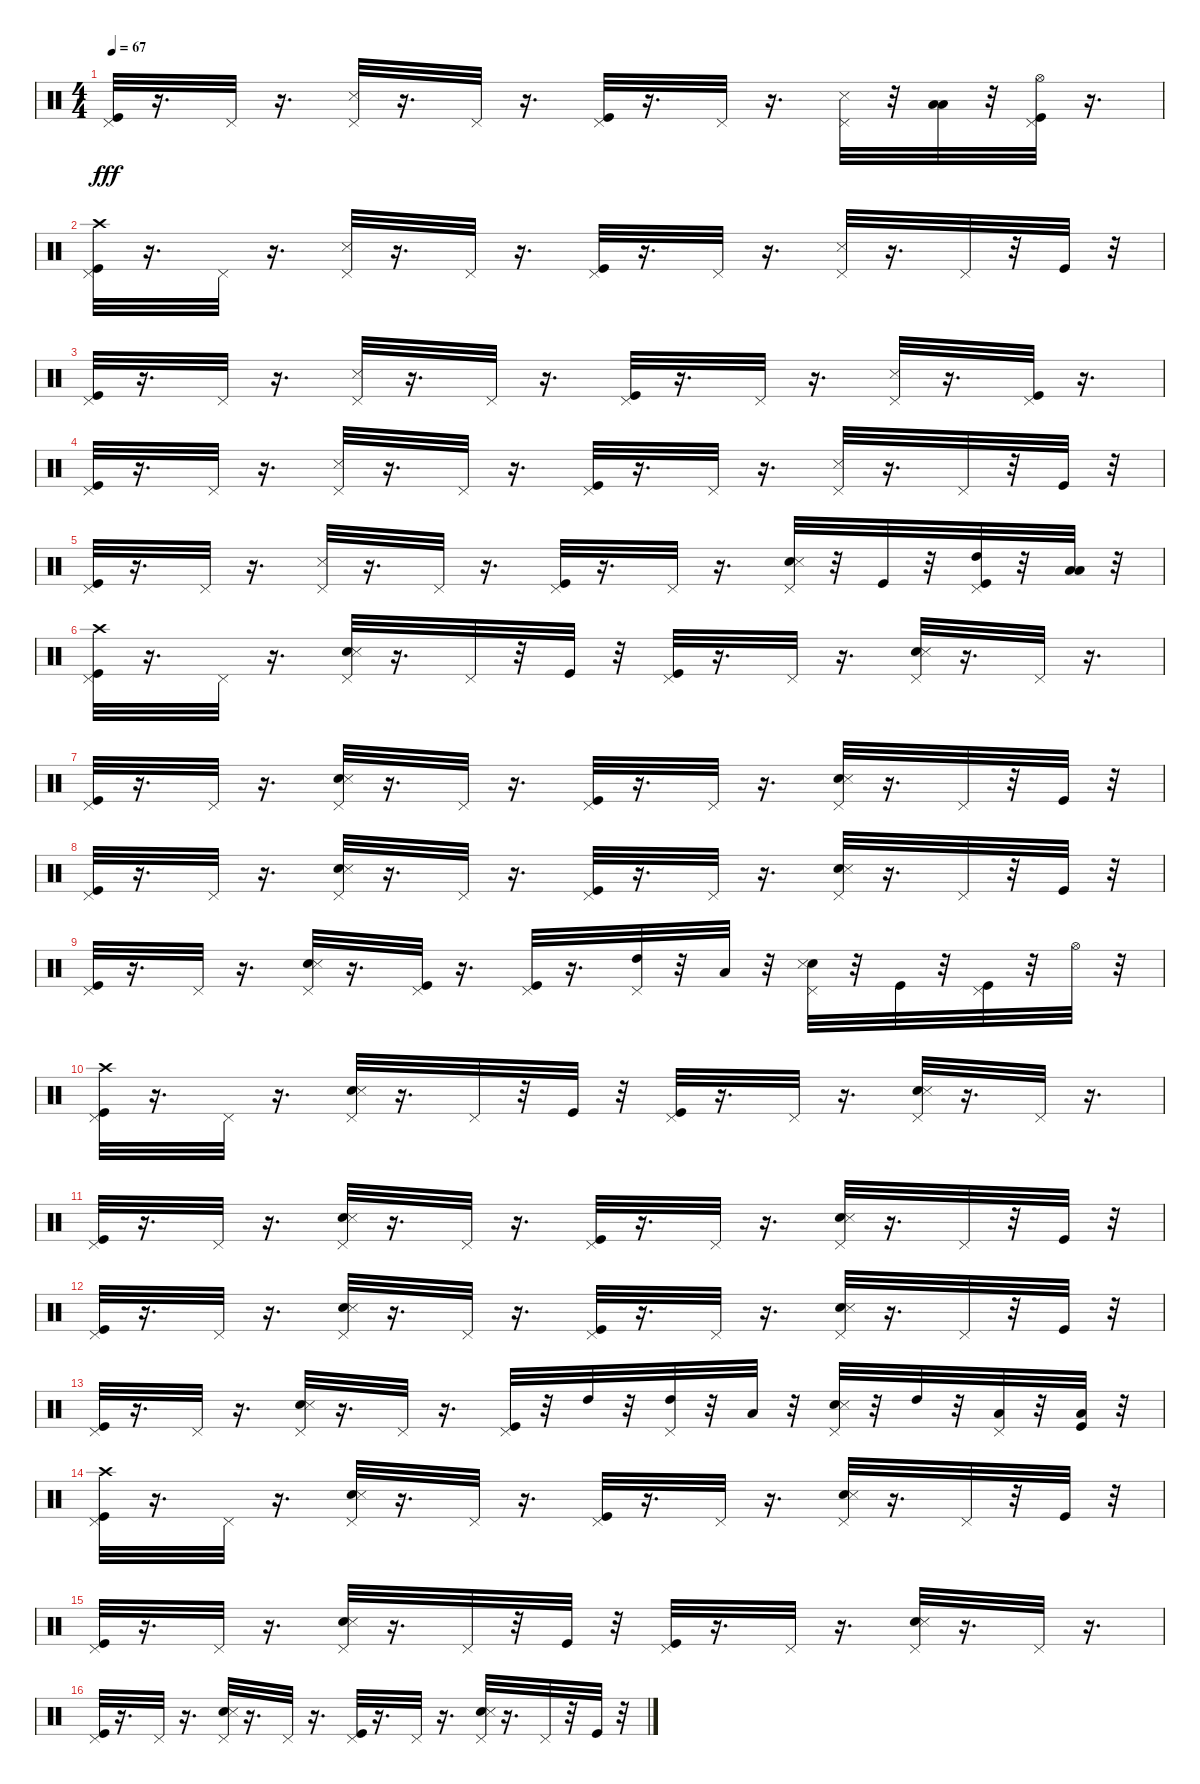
\track "" {instrument percussion}
\staff {score}
\articulation defaults
\ts (4 4)
\tempo 67
\clef neutral
\ks c
("Kick (hit)" "Pedal Hi-Hat (hit)").32{dy fff} r.16{d} "Pedal Hi-Hat (hit)".32 r.16{d} ("Pedal Hi-Hat (hit)" "Snare (side stick) 3").32 r.16{d} "Pedal Hi-Hat (hit)".32 r.16{d} ("Kick (hit)" "Pedal Hi-Hat (hit)").32 r.16{d} "Pedal Hi-Hat (hit)".32 r.16{d} ("Pedal Hi-Hat (hit)" "Snare (side stick) 3").32 r.32 ("Low Tom (hit)" "Low Floor Tom (hit)").32 r.32 ("Kick (hit)" "Pedal Hi-Hat (hit)" "Hi-Hat (open)").32 r.16{d} |
("Kick (hit)" "Pedal Hi-Hat (hit)" "Crash high (hit)").32 r.16{d} "Pedal Hi-Hat (hit)".32 r.16{d} ("Pedal Hi-Hat (hit)" "Snare (side stick) 3").32 r.16{d} "Pedal Hi-Hat (hit)".32 r.16{d} ("Kick (hit)" "Pedal Hi-Hat (hit)").32 r.16{d} "Pedal Hi-Hat (hit)".32 r.16{d} ("Pedal Hi-Hat (hit)" "Snare (side stick) 3").32 r.16{d} "Pedal Hi-Hat (hit)".32 r.32 "Kick (hit)".32 r.32 |
("Kick (hit)" "Pedal Hi-Hat (hit)").32 r.16{d} "Pedal Hi-Hat (hit)".32 r.16{d} ("Pedal Hi-Hat (hit)" "Snare (side stick) 3").32 r.16{d} "Pedal Hi-Hat (hit)".32 r.16{d} ("Kick (hit)" "Pedal Hi-Hat (hit)").32 r.16{d} "Pedal Hi-Hat (hit)".32 r.16{d} ("Pedal Hi-Hat (hit)" "Snare (side stick) 3").32 r.16{d} ("Kick (hit)" "Pedal Hi-Hat (hit)").32 r.16{d} |
("Kick (hit)" "Pedal Hi-Hat (hit)").32 r.16{d} "Pedal Hi-Hat (hit)".32 r.16{d} ("Pedal Hi-Hat (hit)" "Snare (side stick) 3").32 r.16{d} "Pedal Hi-Hat (hit)".32 r.16{d} ("Kick (hit)" "Pedal Hi-Hat (hit)").32 r.16{d} "Pedal Hi-Hat (hit)".32 r.16{d} ("Pedal Hi-Hat (hit)" "Snare (side stick) 3").32 r.16{d} "Pedal Hi-Hat (hit)".32 r.32 "Kick (hit)".32 r.32 |
("Kick (hit)" "Pedal Hi-Hat (hit)").32 r.16{d} "Pedal Hi-Hat (hit)".32 r.16{d} ("Pedal Hi-Hat (hit)" "Snare (side stick) 3").32 r.16{d} "Pedal Hi-Hat (hit)".32 r.16{d} ("Kick (hit)" "Pedal Hi-Hat (hit)").32 r.16{d} "Pedal Hi-Hat (hit)".32 r.16{d} ("Electric Snare (hit)" "Pedal Hi-Hat (hit)" "Snare (side stick) 3").32 r.32 "Kick (hit)".32 r.32 ("Kick (hit)" "Pedal Hi-Hat (hit)" "High Tom (hit)").32 r.32 ("Low Tom (hit)" "Low Floor Tom (hit)").32 r.32 |
("Kick (hit)" "Pedal Hi-Hat (hit)" "Crash high (hit)").32 r.16{d} "Pedal Hi-Hat (hit)".32 r.16{d} ("Electric Snare (hit)" "Pedal Hi-Hat (hit)" "Snare (side stick) 3").32 r.16{d} "Pedal Hi-Hat (hit)".32 r.32 "Kick (hit)".32 r.32 ("Kick (hit)" "Pedal Hi-Hat (hit)").32 r.16{d} "Pedal Hi-Hat (hit)".32 r.16{d} ("Electric Snare (hit)" "Pedal Hi-Hat (hit)" "Snare (side stick) 3").32 r.16{d} "Pedal Hi-Hat (hit)".32 r.16{d} |
("Kick (hit)" "Pedal Hi-Hat (hit)").32 r.16{d} "Pedal Hi-Hat (hit)".32 r.16{d} ("Electric Snare (hit)" "Pedal Hi-Hat (hit)" "Snare (side stick) 3").32 r.16{d} "Pedal Hi-Hat (hit)".32 r.16{d} ("Kick (hit)" "Pedal Hi-Hat (hit)").32 r.16{d} "Pedal Hi-Hat (hit)".32 r.16{d} ("Electric Snare (hit)" "Pedal Hi-Hat (hit)" "Snare (side stick) 3").32 r.16{d} "Pedal Hi-Hat (hit)".32 r.32 "Kick (hit)".32 r.32 |
("Kick (hit)" "Pedal Hi-Hat (hit)").32 r.16{d} "Pedal Hi-Hat (hit)".32 r.16{d} ("Electric Snare (hit)" "Pedal Hi-Hat (hit)" "Snare (side stick) 3").32 r.16{d} "Pedal Hi-Hat (hit)".32 r.16{d} ("Kick (hit)" "Pedal Hi-Hat (hit)").32 r.16{d} "Pedal Hi-Hat (hit)".32 r.16{d} ("Electric Snare (hit)" "Pedal Hi-Hat (hit)" "Snare (side stick) 3").32 r.16{d} "Pedal Hi-Hat (hit)".32 r.32 "Kick (hit)".32 r.32 |
("Kick (hit)" "Pedal Hi-Hat (hit)").32 r.16{d} "Pedal Hi-Hat (hit)".32 r.16{d} ("Electric Snare (hit)" "Pedal Hi-Hat (hit)" "Snare (side stick) 3").32 r.16{d} ("Kick (hit)" "Pedal Hi-Hat (hit)").32 r.16{d} ("Kick (hit)" "Pedal Hi-Hat (hit)").32 r.16{d} ("Pedal Hi-Hat (hit)" "High Tom (hit)").32 r.32 "Low Tom (hit)".32 r.32 ("Electric Snare (hit)" "Pedal Hi-Hat (hit)" "Snare (side stick) 3").32 r.32 "Kick (hit)".32 r.32 ("Kick (hit)" "Pedal Hi-Hat (hit)").32 r.32 "Hi-Hat (open)".32 r.32 |
("Kick (hit)" "Pedal Hi-Hat (hit)" "Crash high (hit)").32 r.16{d} "Pedal Hi-Hat (hit)".32 r.16{d} ("Electric Snare (hit)" "Pedal Hi-Hat (hit)" "Snare (side stick) 3").32 r.16{d} "Pedal Hi-Hat (hit)".32 r.32 "Kick (hit)".32 r.32 ("Kick (hit)" "Pedal Hi-Hat (hit)").32 r.16{d} "Pedal Hi-Hat (hit)".32 r.16{d} ("Electric Snare (hit)" "Pedal Hi-Hat (hit)" "Snare (side stick) 3").32 r.16{d} "Pedal Hi-Hat (hit)".32 r.16{d} |
("Kick (hit)" "Pedal Hi-Hat (hit)").32 r.16{d} "Pedal Hi-Hat (hit)".32 r.16{d} ("Electric Snare (hit)" "Pedal Hi-Hat (hit)" "Snare (side stick) 3").32 r.16{d} "Pedal Hi-Hat (hit)".32 r.16{d} ("Kick (hit)" "Pedal Hi-Hat (hit)").32 r.16{d} "Pedal Hi-Hat (hit)".32 r.16{d} ("Electric Snare (hit)" "Pedal Hi-Hat (hit)" "Snare (side stick) 3").32 r.16{d} "Pedal Hi-Hat (hit)".32 r.32 "Kick (hit)".32 r.32 |
("Kick (hit)" "Pedal Hi-Hat (hit)").32 r.16{d} "Pedal Hi-Hat (hit)".32 r.16{d} ("Electric Snare (hit)" "Pedal Hi-Hat (hit)" "Snare (side stick) 3").32 r.16{d} "Pedal Hi-Hat (hit)".32 r.16{d} ("Kick (hit)" "Pedal Hi-Hat (hit)").32 r.16{d} "Pedal Hi-Hat (hit)".32 r.16{d} ("Electric Snare (hit)" "Pedal Hi-Hat (hit)" "Snare (side stick) 3").32 r.16{d} "Pedal Hi-Hat (hit)".32 r.32 "Kick (hit)".32 r.32 |
("Kick (hit)" "Pedal Hi-Hat (hit)").32 r.16{d} "Pedal Hi-Hat (hit)".32 r.16{d} ("Electric Snare (hit)" "Pedal Hi-Hat (hit)" "Snare (side stick) 3").32 r.16{d} "Pedal Hi-Hat (hit)".32 r.16{d} ("Kick (hit)" "Pedal Hi-Hat (hit)").32 r.32 "High Tom (hit)".32 r.32 ("Pedal Hi-Hat (hit)" "High Tom (hit)").32 r.32 "Low Tom (hit)".32 r.32 ("Electric Snare (hit)" "Pedal Hi-Hat (hit)" "Snare (side stick) 3").32 r.32 "High Tom (hit)".32 r.32 ("Pedal Hi-Hat (hit)" "Low Tom (hit)").32 r.32 ("Kick (hit)" "Low Floor Tom (hit)").32 r.32 |
("Kick (hit)" "Pedal Hi-Hat (hit)" "Crash high (hit)").32 r.16{d} "Pedal Hi-Hat (hit)".32 r.16{d} ("Electric Snare (hit)" "Pedal Hi-Hat (hit)" "Snare (side stick) 3").32 r.16{d} "Pedal Hi-Hat (hit)".32 r.16{d} ("Kick (hit)" "Pedal Hi-Hat (hit)").32 r.16{d} "Pedal Hi-Hat (hit)".32 r.16{d} ("Electric Snare (hit)" "Pedal Hi-Hat (hit)" "Snare (side stick) 3").32 r.16{d} "Pedal Hi-Hat (hit)".32 r.32 "Kick (hit)".32 r.32 |
("Kick (hit)" "Pedal Hi-Hat (hit)").32 r.16{d} "Pedal Hi-Hat (hit)".32 r.16{d} ("Electric Snare (hit)" "Pedal Hi-Hat (hit)" "Snare (side stick) 3").32 r.16{d} "Pedal Hi-Hat (hit)".32 r.32 "Kick (hit)".32 r.32 ("Kick (hit)" "Pedal Hi-Hat (hit)").32 r.16{d} "Pedal Hi-Hat (hit)".32 r.16{d} ("Electric Snare (hit)" "Pedal Hi-Hat (hit)" "Snare (side stick) 3").32 r.16{d} "Pedal Hi-Hat (hit)".32 r.16{d} |
("Kick (hit)" "Pedal Hi-Hat (hit)").32 r.16{d} "Pedal Hi-Hat (hit)".32 r.16{d} ("Electric Snare (hit)" "Pedal Hi-Hat (hit)" "Snare (side stick) 3").32 r.16{d} "Pedal Hi-Hat (hit)".32 r.16{d} ("Kick (hit)" "Pedal Hi-Hat (hit)").32 r.16{d} "Pedal Hi-Hat (hit)".32 r.16{d} ("Electric Snare (hit)" "Pedal Hi-Hat (hit)" "Snare (side stick) 3").32 r.16{d} "Pedal Hi-Hat (hit)".32 r.32 "Kick (hit)".32 r.32
